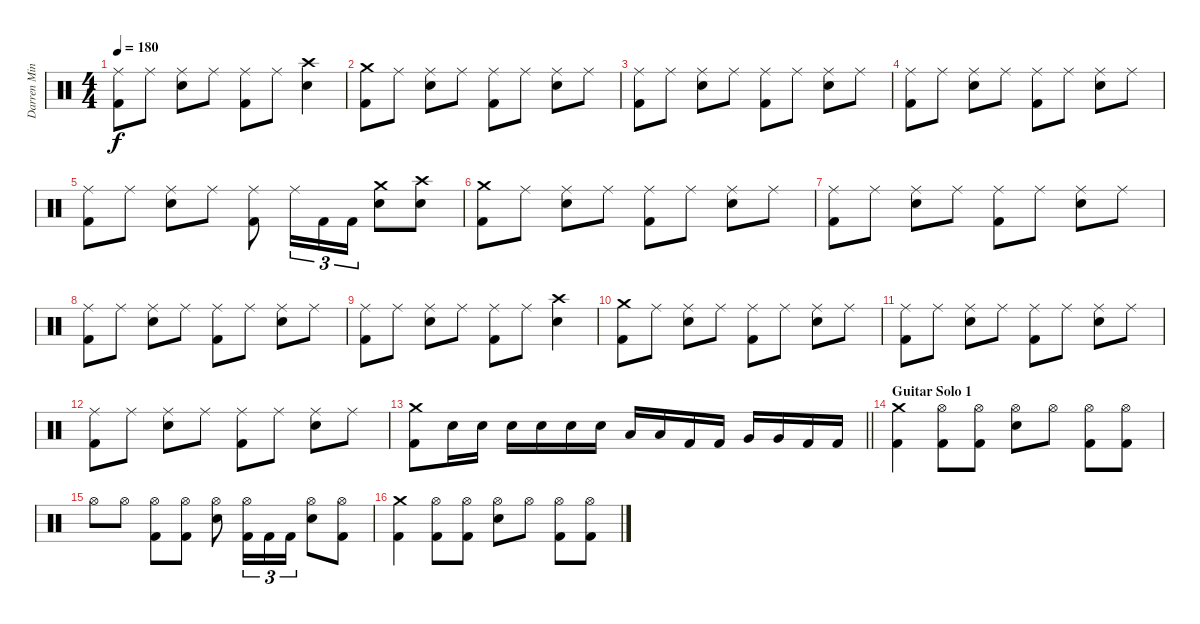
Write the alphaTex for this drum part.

\track ("Darren Minter" "Darren Min") {instrument percussion}
\staff {score}
\articulation defaults
\ts (4 4)
\tempo 180
\clef neutral
\ks c
("Ride (middle)" "Kick (hit) 2").8{dy f} "Ride (middle)".8 ("Ride (middle)" "Electric Snare (hit)").8 "Ride (middle)".8 ("Ride (middle)" "Kick (hit) 2").8 "Ride (middle)".8 ("Crash high (hit)" "Electric Snare (hit)").4 |
("Crash medium (hit)" "Kick (hit) 2").8 "Ride (middle)".8 ("Ride (middle)" "Electric Snare (hit)").8 "Ride (middle)".8 ("Ride (middle)" "Kick (hit) 2").8 "Ride (middle)".8 ("Ride (middle)" "Electric Snare (hit)").8 "Ride (middle)".8 |
("Ride (middle)" "Kick (hit) 2").8 "Ride (middle)".8 ("Ride (middle)" "Electric Snare (hit)").8 "Ride (middle)".8 ("Ride (middle)" "Kick (hit) 2").8 "Ride (middle)".8 ("Ride (middle)" "Electric Snare (hit)").8 "Ride (middle)".8 |
("Ride (middle)" "Kick (hit) 2").8 "Ride (middle)".8 ("Ride (middle)" "Electric Snare (hit)").8 "Ride (middle)".8 ("Ride (middle)" "Kick (hit) 2").8 "Ride (middle)".8 ("Ride (middle)" "Electric Snare (hit)").8 "Ride (middle)".8 |
("Ride (middle)" "Kick (hit) 2").8 "Ride (middle)".8 ("Ride (middle)" "Electric Snare (hit)").8 "Ride (middle)".8 ("Ride (middle)" "Kick (hit) 2").8 "Ride (middle)".16{tu (3 2)} "Kick (hit) 2".16{tu (3 2)} "Kick (hit) 2".16{tu (3 2)} ("Crash medium (hit)" "Electric Snare (hit)").8 ("Crash high (hit)" "Electric Snare (hit)").8 |
("Crash medium (hit)" "Kick (hit) 2").8 "Ride (middle)".8 ("Ride (middle)" "Electric Snare (hit)").8 "Ride (middle)".8 ("Ride (middle)" "Kick (hit) 2").8 "Ride (middle)".8 ("Ride (middle)" "Electric Snare (hit)").8 "Ride (middle)".8 |
("Ride (middle)" "Kick (hit) 2").8 "Ride (middle)".8 ("Ride (middle)" "Electric Snare (hit)").8 "Ride (middle)".8 ("Ride (middle)" "Kick (hit) 2").8 "Ride (middle)".8 ("Ride (middle)" "Electric Snare (hit)").8 "Ride (middle)".8 |
("Ride (middle)" "Kick (hit) 2").8 "Ride (middle)".8 ("Ride (middle)" "Electric Snare (hit)").8 "Ride (middle)".8 ("Ride (middle)" "Kick (hit) 2").8 "Ride (middle)".8 ("Ride (middle)" "Electric Snare (hit)").8 "Ride (middle)".8 |
("Ride (middle)" "Kick (hit) 2").8 "Ride (middle)".8 ("Ride (middle)" "Electric Snare (hit)").8 "Ride (middle)".8 ("Ride (middle)" "Kick (hit) 2").8 "Ride (middle)".8 ("Crash high (hit)" "Electric Snare (hit)").4 |
("Crash medium (hit)" "Kick (hit) 2").8 "Ride (middle)".8 ("Ride (middle)" "Electric Snare (hit)").8 "Ride (middle)".8 ("Ride (middle)" "Kick (hit) 2").8 "Ride (middle)".8 ("Ride (middle)" "Electric Snare (hit)").8 "Ride (middle)".8 |
("Ride (middle)" "Kick (hit) 2").8 "Ride (middle)".8 ("Ride (middle)" "Electric Snare (hit)").8 "Ride (middle)".8 ("Ride (middle)" "Kick (hit) 2").8 "Ride (middle)".8 ("Ride (middle)" "Electric Snare (hit)").8 "Ride (middle)".8 |
("Ride (middle)" "Kick (hit) 2").8 "Ride (middle)".8 ("Ride (middle)" "Electric Snare (hit)").8 "Ride (middle)".8 ("Ride (middle)" "Kick (hit) 2").8 "Ride (middle)".8 ("Ride (middle)" "Electric Snare (hit)").8 "Ride (middle)".8 |
\barLineRight lightlight
("Crash medium (hit)" "Kick (hit) 2").8 "Electric Snare (hit)".16 "Electric Snare (hit)".16 "Electric Snare (hit)".16 "Electric Snare (hit)".16 "Electric Snare (hit)".16 "Electric Snare (hit)".16 "Low Tom (hit)".16 "Low Tom (hit)".16 "Kick (hit) 2".16 "Kick (hit) 2".16 "Very Low Tom (hit)".16 "Very Low Tom (hit)".16 "Kick (hit) 2".16 "Kick (hit) 2".16 |
\section ("" "Guitar Solo 1")
("Crash medium (hit)" "Kick (hit) 2").4 ("Hi-Hat (open)" "Kick (hit) 2").8 ("Hi-Hat (open)" "Kick (hit) 2").8 ("Hi-Hat (open)" "Electric Snare (hit)").8 "Hi-Hat (open)".8 ("Hi-Hat (open)" "Kick (hit) 2").8 ("Hi-Hat (open)" "Kick (hit) 2").8 |
"Hi-Hat (open)".8 "Hi-Hat (open)".8 ("Hi-Hat (open)" "Kick (hit) 2").8 ("Hi-Hat (open)" "Kick (hit) 2").8 ("Hi-Hat (open)" "Electric Snare (hit)").8 ("Hi-Hat (open)" "Kick (hit) 2").16{tu (3 2)} "Kick (hit) 2".16{tu (3 2)} "Kick (hit) 2".16{tu (3 2)} ("Hi-Hat (open)" "Electric Snare (hit)").8 ("Hi-Hat (open)" "Kick (hit) 2").8 |
("Crash medium (hit)" "Kick (hit) 2").4 ("Hi-Hat (open)" "Kick (hit) 2").8 ("Hi-Hat (open)" "Kick (hit) 2").8 ("Hi-Hat (open)" "Electric Snare (hit)").8 "Hi-Hat (open)".8 ("Hi-Hat (open)" "Kick (hit) 2").8 ("Hi-Hat (open)" "Kick (hit) 2").8
